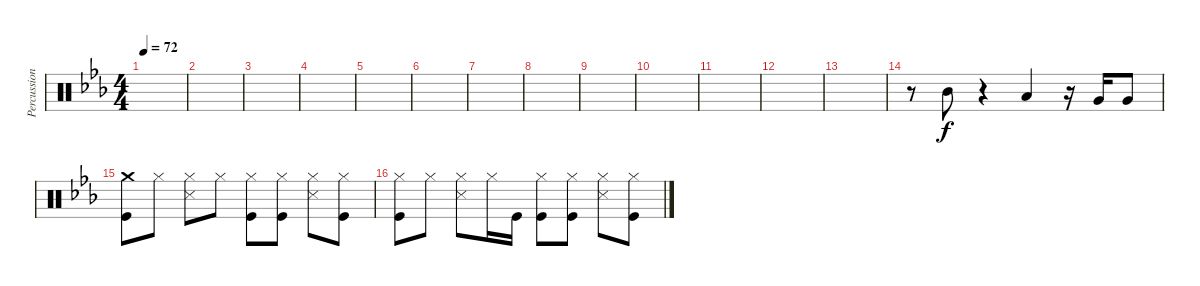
\track ("Percussion" "Percussion") {instrument percussion}
\staff {score}
\articulation defaults
\ts (4 4)
\tempo 72
\clef neutral
\ks eb
|
|
|
|
|
|
|
|
|
|
|
|
|
r.8 "Mid Tom (hit)".8 r.4 "Low Tom (hit)".4 r.16 "Very Low Tom (hit)".16 "Very Low Tom (hit)".8 |
("Crash medium (hit)" "Kick (hit)").8 "Hi-Hat (closed)".8 ("Hi-Hat (closed)" "Snare (side stick) 3").8 "Hi-Hat (closed)".8 ("Hi-Hat (closed)" "Kick (hit)").8 ("Hi-Hat (closed)" "Kick (hit)").8 ("Hi-Hat (closed)" "Snare (side stick) 3").8 ("Hi-Hat (closed)" "Kick (hit)").8 |
("Hi-Hat (closed)" "Kick (hit)").8 "Hi-Hat (closed)".8 ("Hi-Hat (closed)" "Snare (side stick) 3").8 "Hi-Hat (closed)".16 "Kick (hit)".16 ("Hi-Hat (closed)" "Kick (hit)").8 ("Hi-Hat (closed)" "Kick (hit)").8 ("Hi-Hat (closed)" "Snare (side stick) 3").8 ("Hi-Hat (closed)" "Kick (hit)").8
